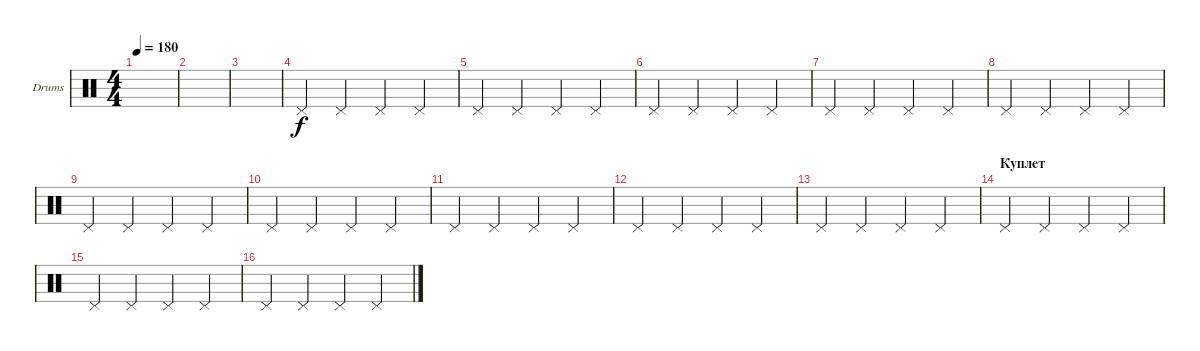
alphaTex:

\defaultSystemsLayout 4
\bracketExtendMode groupsimilarinstruments
\firstSystemTrackNameOrientation horizontal
\otherSystemsTrackNameOrientation horizontal
\track ("Drumkit" "Drums") {instrument percussion}
\staff {score}
\articulation defaults
\ts (4 4)
\tempo 180
\clef neutral
\ks c
|
\scale
0.474178 |
|
"Pedal Hi-Hat (hit)".4 "Pedal Hi-Hat (hit)".4 "Pedal Hi-Hat (hit)".4 "Pedal Hi-Hat (hit)".4 |
"Pedal Hi-Hat (hit)".4 "Pedal Hi-Hat (hit)".4 "Pedal Hi-Hat (hit)".4 "Pedal Hi-Hat (hit)".4 |
"Pedal Hi-Hat (hit)".4 "Pedal Hi-Hat (hit)".4 "Pedal Hi-Hat (hit)".4 "Pedal Hi-Hat (hit)".4 |
"Pedal Hi-Hat (hit)".4 "Pedal Hi-Hat (hit)".4 "Pedal Hi-Hat (hit)".4 "Pedal Hi-Hat (hit)".4 |
\scale
0.262911 "Pedal Hi-Hat (hit)".4 "Pedal Hi-Hat (hit)".4 "Pedal Hi-Hat (hit)".4 "Pedal Hi-Hat (hit)".4 |
\scale
0.262911 "Pedal Hi-Hat (hit)".4 "Pedal Hi-Hat (hit)".4 "Pedal Hi-Hat (hit)".4 "Pedal Hi-Hat (hit)".4 |
\scale
0.333333 "Pedal Hi-Hat (hit)".4 "Pedal Hi-Hat (hit)".4 "Pedal Hi-Hat (hit)".4 "Pedal Hi-Hat (hit)".4 |
\scale
0.333333 "Pedal Hi-Hat (hit)".4 "Pedal Hi-Hat (hit)".4 "Pedal Hi-Hat (hit)".4 "Pedal Hi-Hat (hit)".4 |
\scale
0.333333 "Pedal Hi-Hat (hit)".4 "Pedal Hi-Hat (hit)".4 "Pedal Hi-Hat (hit)".4 "Pedal Hi-Hat (hit)".4 |
\scale
0.333333 "Pedal Hi-Hat (hit)".4 "Pedal Hi-Hat (hit)".4 "Pedal Hi-Hat (hit)".4 "Pedal Hi-Hat (hit)".4 |
\section ("" "Куплет")
\scale
0.333333 "Pedal Hi-Hat (hit)".4 "Pedal Hi-Hat (hit)".4 "Pedal Hi-Hat (hit)".4 "Pedal Hi-Hat (hit)".4 |
\scale
0.333333 "Pedal Hi-Hat (hit)".4 "Pedal Hi-Hat (hit)".4 "Pedal Hi-Hat (hit)".4 "Pedal Hi-Hat (hit)".4 |
"Pedal Hi-Hat (hit)".4 "Pedal Hi-Hat (hit)".4 "Pedal Hi-Hat (hit)".4 "Pedal Hi-Hat (hit)".4
